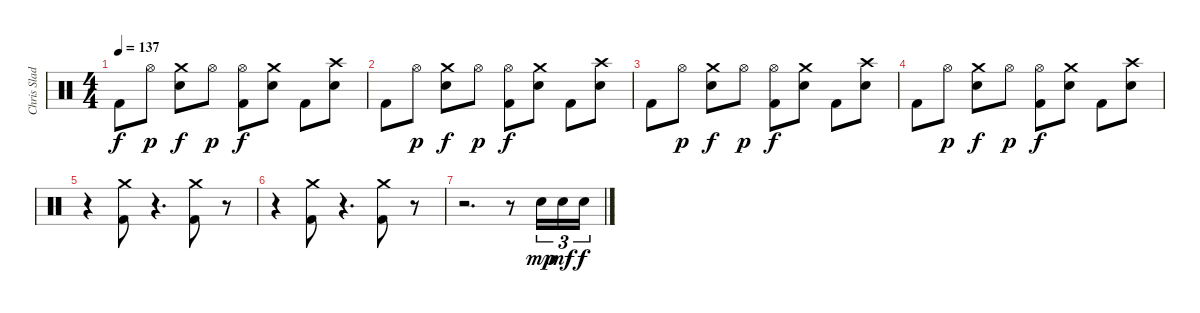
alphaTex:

\track ("Chris Slade / Drums" "Chris Slad") {instrument percussion}
\staff {score}
\articulation defaults
\ts (4 4)
\tempo 137
\clef neutral
\ks c "Kick (hit) 2".8{dy f} "Hi-Hat (open)".8{dy p}
("Crash medium (hit)" "Electric Snare (hit)").8{dy f} "Hi-Hat (open)".8{dy p} ("Hi-Hat (open)" "Kick (hit) 2").8{dy f} ("Crash medium (hit)" "Electric Snare (hit)").8 "Kick (hit) 2".8 ("Crash high (hit)" "Electric Snare (hit)").8 |
"Kick (hit) 2".8 "Hi-Hat (open)".8{dy p} ("Crash medium (hit)" "Electric Snare (hit)").8{dy f} "Hi-Hat (open)".8{dy p} ("Hi-Hat (open)" "Kick (hit) 2").8{dy f} ("Crash medium (hit)" "Electric Snare (hit)").8 "Kick (hit) 2".8 ("Crash high (hit)" "Electric Snare (hit)").8 |
"Kick (hit) 2".8 "Hi-Hat (open)".8{dy p} ("Crash medium (hit)" "Electric Snare (hit)").8{dy f} "Hi-Hat (open)".8{dy p} ("Hi-Hat (open)" "Kick (hit) 2").8{dy f} ("Crash medium (hit)" "Electric Snare (hit)").8 "Kick (hit) 2".8 ("Crash high (hit)" "Electric Snare (hit)").8 |
"Kick (hit) 2".8 "Hi-Hat (open)".8{dy p} ("Crash medium (hit)" "Electric Snare (hit)").8{dy f} "Hi-Hat (open)".8{dy p} ("Hi-Hat (open)" "Kick (hit) 2").8{dy f} ("Crash medium (hit)" "Electric Snare (hit)").8 "Kick (hit) 2".8 ("Crash high (hit)" "Electric Snare (hit)").8 |
r.4 ("Kick (hit) 2" "Crash medium (hit)").8 r.4{d} ("Crash medium (hit)" "Kick (hit) 2").8 r.8 |
r.4 ("Kick (hit) 2" "Crash medium (hit)").8 r.4{d} ("Kick (hit) 2" "Crash medium (hit)").8 r.8 |
r.2{d} r.8 "Electric Snare (hit)".16{tu (3 2) dy mp} "Electric Snare (hit)".16{tu (3 2) dy mf} "Electric Snare (hit)".16{tu (3 2) dy f}
